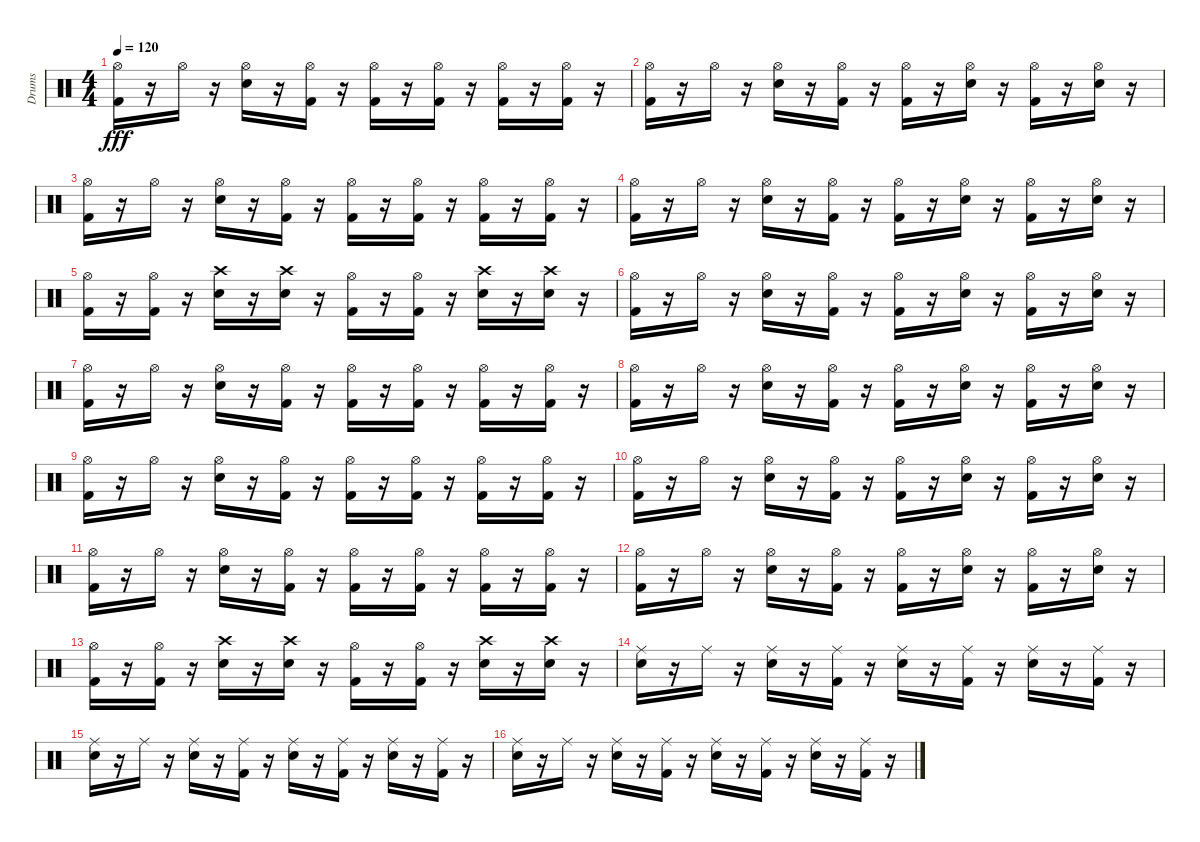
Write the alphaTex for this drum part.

\track ("Drums" "Drums") {instrument percussion}
\staff {score}
\articulation defaults
\ts (4 4)
\tempo 120
\clef neutral
\ks c
("Kick (hit) 2" "Hi-Hat (open)").16{dy fff} r.16 "Hi-Hat (open)".16 r.16 ("Snare (hit) 2" "Hi-Hat (open)").16 r.16 ("Kick (hit) 2" "Hi-Hat (open)").16 r.16 ("Kick (hit) 2" "Hi-Hat (open)").16 r.16 ("Kick (hit) 2" "Hi-Hat (open)").16 r.16 ("Kick (hit) 2" "Hi-Hat (open)").16 r.16 ("Kick (hit) 2" "Hi-Hat (open)").16 r.16 |
("Kick (hit) 2" "Hi-Hat (open)").16 r.16 "Hi-Hat (open)".16 r.16 ("Snare (hit) 2" "Hi-Hat (open)").16 r.16 ("Kick (hit) 2" "Hi-Hat (open)").16 r.16 ("Kick (hit) 2" "Hi-Hat (open)").16 r.16 ("Snare (hit) 2" "Hi-Hat (open)").16 r.16 ("Kick (hit) 2" "Hi-Hat (open)").16 r.16 ("Snare (hit) 2" "Hi-Hat (open)").16 r.16 |
("Kick (hit) 2" "Hi-Hat (open)").16 r.16 "Hi-Hat (open)".16 r.16 ("Snare (hit) 2" "Hi-Hat (open)").16 r.16 ("Kick (hit) 2" "Hi-Hat (open)").16 r.16 ("Kick (hit) 2" "Hi-Hat (open)").16 r.16 ("Kick (hit) 2" "Hi-Hat (open)").16 r.16 ("Kick (hit) 2" "Hi-Hat (open)").16 r.16 ("Kick (hit) 2" "Hi-Hat (open)").16 r.16 |
("Kick (hit) 2" "Hi-Hat (open)").16 r.16 "Hi-Hat (open)".16 r.16 ("Snare (hit) 2" "Hi-Hat (open)").16 r.16 ("Kick (hit) 2" "Hi-Hat (open)").16 r.16 ("Kick (hit) 2" "Hi-Hat (open)").16 r.16 ("Snare (hit) 2" "Hi-Hat (open)").16 r.16 ("Kick (hit) 2" "Hi-Hat (open)").16 r.16 ("Snare (hit) 2" "Hi-Hat (open)").16 r.16 |
("Kick (hit) 2" "Hi-Hat (open)").16 r.16 ("Kick (hit) 2" "Hi-Hat (open)").16 r.16 ("Crash high (hit)" "Snare (hit) 2").16 r.16 ("Crash high (hit)" "Snare (hit) 2").16 r.16 ("Kick (hit) 2" "Hi-Hat (open)").16 r.16 ("Kick (hit) 2" "Hi-Hat (open)").16 r.16 ("Crash high (hit)" "Snare (hit) 2").16 r.16 ("Crash high (hit)" "Snare (hit) 2").16 r.16 |
("Kick (hit) 2" "Hi-Hat (open)").16 r.16 "Hi-Hat (open)".16 r.16 ("Snare (hit) 2" "Hi-Hat (open)").16 r.16 ("Kick (hit) 2" "Hi-Hat (open)").16 r.16 ("Kick (hit) 2" "Hi-Hat (open)").16 r.16 ("Snare (hit) 2" "Hi-Hat (open)").16 r.16 ("Kick (hit) 2" "Hi-Hat (open)").16 r.16 ("Snare (hit) 2" "Hi-Hat (open)").16 r.16 |
("Kick (hit) 2" "Hi-Hat (open)").16 r.16 "Hi-Hat (open)".16 r.16 ("Snare (hit) 2" "Hi-Hat (open)").16 r.16 ("Kick (hit) 2" "Hi-Hat (open)").16 r.16 ("Kick (hit) 2" "Hi-Hat (open)").16 r.16 ("Kick (hit) 2" "Hi-Hat (open)").16 r.16 ("Kick (hit) 2" "Hi-Hat (open)").16 r.16 ("Kick (hit) 2" "Hi-Hat (open)").16 r.16 |
("Kick (hit) 2" "Hi-Hat (open)").16 r.16 "Hi-Hat (open)".16 r.16 ("Snare (hit) 2" "Hi-Hat (open)").16 r.16 ("Kick (hit) 2" "Hi-Hat (open)").16 r.16 ("Kick (hit) 2" "Hi-Hat (open)").16 r.16 ("Snare (hit) 2" "Hi-Hat (open)").16 r.16 ("Kick (hit) 2" "Hi-Hat (open)").16 r.16 ("Snare (hit) 2" "Hi-Hat (open)").16 r.16 |
("Kick (hit) 2" "Hi-Hat (open)").16 r.16 "Hi-Hat (open)".16 r.16 ("Snare (hit) 2" "Hi-Hat (open)").16 r.16 ("Kick (hit) 2" "Hi-Hat (open)").16 r.16 ("Kick (hit) 2" "Hi-Hat (open)").16 r.16 ("Kick (hit) 2" "Hi-Hat (open)").16 r.16 ("Kick (hit) 2" "Hi-Hat (open)").16 r.16 ("Kick (hit) 2" "Hi-Hat (open)").16 r.16 |
("Kick (hit) 2" "Hi-Hat (open)").16 r.16 "Hi-Hat (open)".16 r.16 ("Snare (hit) 2" "Hi-Hat (open)").16 r.16 ("Kick (hit) 2" "Hi-Hat (open)").16 r.16 ("Kick (hit) 2" "Hi-Hat (open)").16 r.16 ("Snare (hit) 2" "Hi-Hat (open)").16 r.16 ("Kick (hit) 2" "Hi-Hat (open)").16 r.16 ("Snare (hit) 2" "Hi-Hat (open)").16 r.16 |
("Kick (hit) 2" "Hi-Hat (open)").16 r.16 "Hi-Hat (open)".16 r.16 ("Snare (hit) 2" "Hi-Hat (open)").16 r.16 ("Kick (hit) 2" "Hi-Hat (open)").16 r.16 ("Kick (hit) 2" "Hi-Hat (open)").16 r.16 ("Kick (hit) 2" "Hi-Hat (open)").16 r.16 ("Kick (hit) 2" "Hi-Hat (open)").16 r.16 ("Kick (hit) 2" "Hi-Hat (open)").16 r.16 |
("Kick (hit) 2" "Hi-Hat (open)").16 r.16 "Hi-Hat (open)".16 r.16 ("Snare (hit) 2" "Hi-Hat (open)").16 r.16 ("Kick (hit) 2" "Hi-Hat (open)").16 r.16 ("Kick (hit) 2" "Hi-Hat (open)").16 r.16 ("Snare (hit) 2" "Hi-Hat (open)").16 r.16 ("Kick (hit) 2" "Hi-Hat (open)").16 r.16 ("Snare (hit) 2" "Hi-Hat (open)").16 r.16 |
("Kick (hit) 2" "Hi-Hat (open)").16 r.16 ("Kick (hit) 2" "Hi-Hat (open)").16 r.16 ("Crash high (hit)" "Snare (hit) 2").16 r.16 ("Crash high (hit)" "Snare (hit) 2").16 r.16 ("Kick (hit) 2" "Hi-Hat (open)").16 r.16 ("Kick (hit) 2" "Hi-Hat (open)").16 r.16 ("Crash high (hit)" "Snare (hit) 2").16 r.16 ("Crash high (hit)" "Snare (hit) 2").16 r.16 |
("Snare (hit) 2" "Ride (middle)").16 r.16 "Ride (middle)".16 r.16 ("Snare (hit) 2" "Ride (middle)").16 r.16 ("Kick (hit) 2" "Ride (middle)").16 r.16 ("Snare (hit) 2" "Ride (middle)").16 r.16 ("Kick (hit) 2" "Ride (middle)").16 r.16 ("Snare (hit) 2" "Ride (middle)").16 r.16 ("Kick (hit) 2" "Ride (middle)").16 r.16 |
("Snare (hit) 2" "Ride (middle)").16 r.16 "Ride (middle)".16 r.16 ("Snare (hit) 2" "Ride (middle)").16 r.16 ("Kick (hit) 2" "Ride (middle)").16 r.16 ("Snare (hit) 2" "Ride (middle)").16 r.16 ("Kick (hit) 2" "Ride (middle)").16 r.16 ("Snare (hit) 2" "Ride (middle)").16 r.16 ("Kick (hit) 2" "Ride (middle)").16 r.16 |
("Snare (hit) 2" "Ride (middle)").16 r.16 "Ride (middle)".16 r.16 ("Snare (hit) 2" "Ride (middle)").16 r.16 ("Kick (hit) 2" "Ride (middle)").16 r.16 ("Snare (hit) 2" "Ride (middle)").16 r.16 ("Kick (hit) 2" "Ride (middle)").16 r.16 ("Snare (hit) 2" "Ride (middle)").16 r.16 ("Kick (hit) 2" "Ride (middle)").16 r.16
